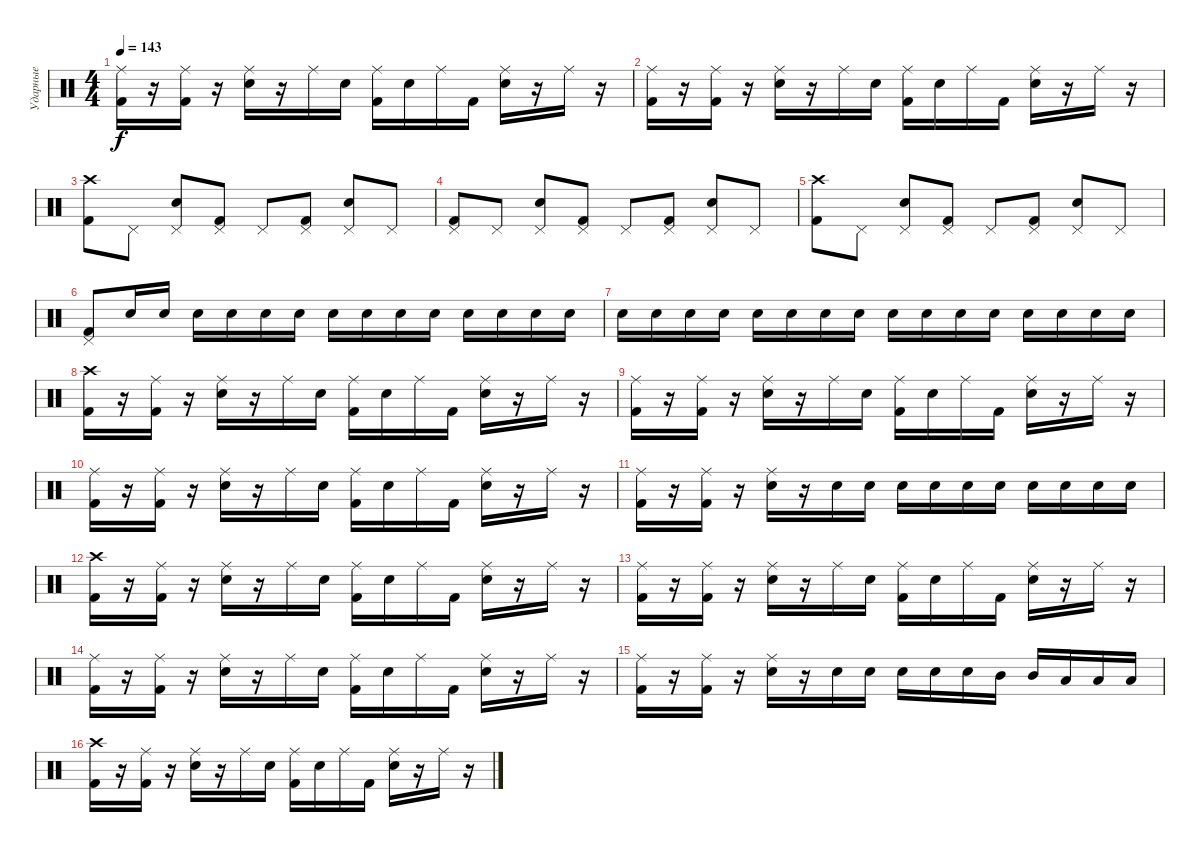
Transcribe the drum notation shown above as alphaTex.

\track ("Ударные" "Ударные") {instrument percussion}
\staff {score}
\articulation defaults
\ts (4 4)
\tempo 143
\clef neutral
\ks c
("Kick (hit) 2" "Ride (middle)").16{dy f} r.16 ("Kick (hit) 2" "Ride (middle)").16 r.16 ("Electric Snare (hit)" "Ride (middle)").16 r.16 "Ride (middle)".16 "Electric Snare (hit)".16 ("Kick (hit) 2" "Ride (middle)").16 "Electric Snare (hit)".16 "Ride (middle)".16 "Kick (hit) 2".16 ("Electric Snare (hit)" "Ride (middle)").16 r.16 "Ride (middle)".16 r.16 |
("Kick (hit) 2" "Ride (middle)").16 r.16 ("Kick (hit) 2" "Ride (middle)").16 r.16 ("Electric Snare (hit)" "Ride (middle)").16 r.16 "Ride (middle)".16 "Electric Snare (hit)".16 ("Kick (hit) 2" "Ride (middle)").16 "Electric Snare (hit)".16 "Ride (middle)".16 "Kick (hit) 2".16 ("Electric Snare (hit)" "Ride (middle)").16 r.16 "Ride (middle)".16 r.16 |
("Kick (hit) 2" "Crash high (hit)").8 "Pedal Hi-Hat (hit)".8 ("Electric Snare (hit)" "Pedal Hi-Hat (hit)").8 ("Kick (hit) 2" "Pedal Hi-Hat (hit)").8 "Pedal Hi-Hat (hit)".8 ("Kick (hit) 2" "Pedal Hi-Hat (hit)").8 ("Electric Snare (hit)" "Pedal Hi-Hat (hit)").8 "Pedal Hi-Hat (hit)".8 |
("Kick (hit) 2" "Pedal Hi-Hat (hit)").8 "Pedal Hi-Hat (hit)".8 ("Electric Snare (hit)" "Pedal Hi-Hat (hit)").8 ("Kick (hit) 2" "Pedal Hi-Hat (hit)").8 "Pedal Hi-Hat (hit)".8 ("Kick (hit) 2" "Pedal Hi-Hat (hit)").8 ("Electric Snare (hit)" "Pedal Hi-Hat (hit)").8 "Pedal Hi-Hat (hit)".8 |
("Kick (hit) 2" "Crash high (hit)").8 "Pedal Hi-Hat (hit)".8 ("Electric Snare (hit)" "Pedal Hi-Hat (hit)").8 ("Kick (hit) 2" "Pedal Hi-Hat (hit)").8 "Pedal Hi-Hat (hit)".8 ("Kick (hit) 2" "Pedal Hi-Hat (hit)").8 ("Electric Snare (hit)" "Pedal Hi-Hat (hit)").8 "Pedal Hi-Hat (hit)".8 |
("Kick (hit) 2" "Pedal Hi-Hat (hit)").8 "Electric Snare (hit)".16 "Electric Snare (hit)".16 "Electric Snare (hit)".16 "Electric Snare (hit)".16 "Electric Snare (hit)".16 "Electric Snare (hit)".16 "Electric Snare (hit)".16 "Electric Snare (hit)".16 "Electric Snare (hit)".16 "Electric Snare (hit)".16 "Electric Snare (hit)".16 "Electric Snare (hit)".16 "Electric Snare (hit)".16 "Electric Snare (hit)".16 |
"Electric Snare (hit)".16 "Electric Snare (hit)".16 "Electric Snare (hit)".16 "Electric Snare (hit)".16 "Electric Snare (hit)".16 "Electric Snare (hit)".16 "Electric Snare (hit)".16 "Electric Snare (hit)".16 "Electric Snare (hit)".16 "Electric Snare (hit)".16 "Electric Snare (hit)".16 "Electric Snare (hit)".16 "Electric Snare (hit)".16 "Electric Snare (hit)".16 "Electric Snare (hit)".16 "Electric Snare (hit)".16 |
("Kick (hit) 2" "Crash high (hit)").16 r.16 ("Kick (hit) 2" "Ride (middle)").16 r.16 ("Electric Snare (hit)" "Ride (middle)").16 r.16 "Ride (middle)".16 "Electric Snare (hit)".16 ("Kick (hit) 2" "Ride (middle)").16 "Electric Snare (hit)".16 "Ride (middle)".16 "Kick (hit) 2".16 ("Electric Snare (hit)" "Ride (middle)").16 r.16 "Ride (middle)".16 r.16 |
("Kick (hit) 2" "Ride (middle)").16 r.16 ("Kick (hit) 2" "Ride (middle)").16 r.16 ("Electric Snare (hit)" "Ride (middle)").16 r.16 "Ride (middle)".16 "Electric Snare (hit)".16 ("Kick (hit) 2" "Ride (middle)").16 "Electric Snare (hit)".16 "Ride (middle)".16 "Kick (hit) 2".16 ("Electric Snare (hit)" "Ride (middle)").16 r.16 "Ride (middle)".16 r.16 |
("Kick (hit) 2" "Ride (middle)").16 r.16 ("Kick (hit) 2" "Ride (middle)").16 r.16 ("Electric Snare (hit)" "Ride (middle)").16 r.16 "Ride (middle)".16 "Electric Snare (hit)".16 ("Kick (hit) 2" "Ride (middle)").16 "Electric Snare (hit)".16 "Ride (middle)".16 "Kick (hit) 2".16 ("Electric Snare (hit)" "Ride (middle)").16 r.16 "Ride (middle)".16 r.16 |
("Kick (hit) 2" "Ride (middle)").16 r.16 ("Kick (hit) 2" "Ride (middle)").16 r.16 ("Electric Snare (hit)" "Ride (middle)").16 r.16 "Electric Snare (hit)".16 "Electric Snare (hit)".16 "Electric Snare (hit)".16 "Electric Snare (hit)".16 "Electric Snare (hit)".16 "Electric Snare (hit)".16 "Electric Snare (hit)".16 "Electric Snare (hit)".16 "Electric Snare (hit)".16 "Electric Snare (hit)".16 |
("Kick (hit) 2" "Crash high (hit)").16 r.16 ("Kick (hit) 2" "Ride (middle)").16 r.16 ("Electric Snare (hit)" "Ride (middle)").16 r.16 "Ride (middle)".16 "Electric Snare (hit)".16 ("Kick (hit) 2" "Ride (middle)").16 "Electric Snare (hit)".16 "Ride (middle)".16 "Kick (hit) 2".16 ("Electric Snare (hit)" "Ride (middle)").16 r.16 "Ride (middle)".16 r.16 |
("Kick (hit) 2" "Ride (middle)").16 r.16 ("Kick (hit) 2" "Ride (middle)").16 r.16 ("Electric Snare (hit)" "Ride (middle)").16 r.16 "Ride (middle)".16 "Electric Snare (hit)".16 ("Kick (hit) 2" "Ride (middle)").16 "Electric Snare (hit)".16 "Ride (middle)".16 "Kick (hit) 2".16 ("Electric Snare (hit)" "Ride (middle)").16 r.16 "Ride (middle)".16 r.16 |
("Kick (hit) 2" "Ride (middle)").16 r.16 ("Kick (hit) 2" "Ride (middle)").16 r.16 ("Electric Snare (hit)" "Ride (middle)").16 r.16 "Ride (middle)".16 "Electric Snare (hit)".16 ("Kick (hit) 2" "Ride (middle)").16 "Electric Snare (hit)".16 "Ride (middle)".16 "Kick (hit) 2".16 ("Electric Snare (hit)" "Ride (middle)").16 r.16 "Ride (middle)".16 r.16 |
("Kick (hit) 2" "Ride (middle)").16 r.16 ("Kick (hit) 2" "Ride (middle)").16 r.16 ("Electric Snare (hit)" "Ride (middle)").16 r.16 "Electric Snare (hit)".16 "Electric Snare (hit)".16 "Electric Snare (hit)".16 "Electric Snare (hit)".16 "Electric Snare (hit)".16 "Mid Tom (hit)".16 "Mid Tom (hit)".16 "Low Tom (hit)".16 "Low Tom (hit)".16 "Low Tom (hit)".16 |
("Kick (hit) 2" "Crash high (hit)").16 r.16 ("Kick (hit) 2" "Ride (middle)").16 r.16 ("Electric Snare (hit)" "Ride (middle)").16 r.16 "Ride (middle)".16 "Electric Snare (hit)".16 ("Kick (hit) 2" "Ride (middle)").16 "Electric Snare (hit)".16 "Ride (middle)".16 "Kick (hit) 2".16 ("Electric Snare (hit)" "Ride (middle)").16 r.16 "Ride (middle)".16 r.16
